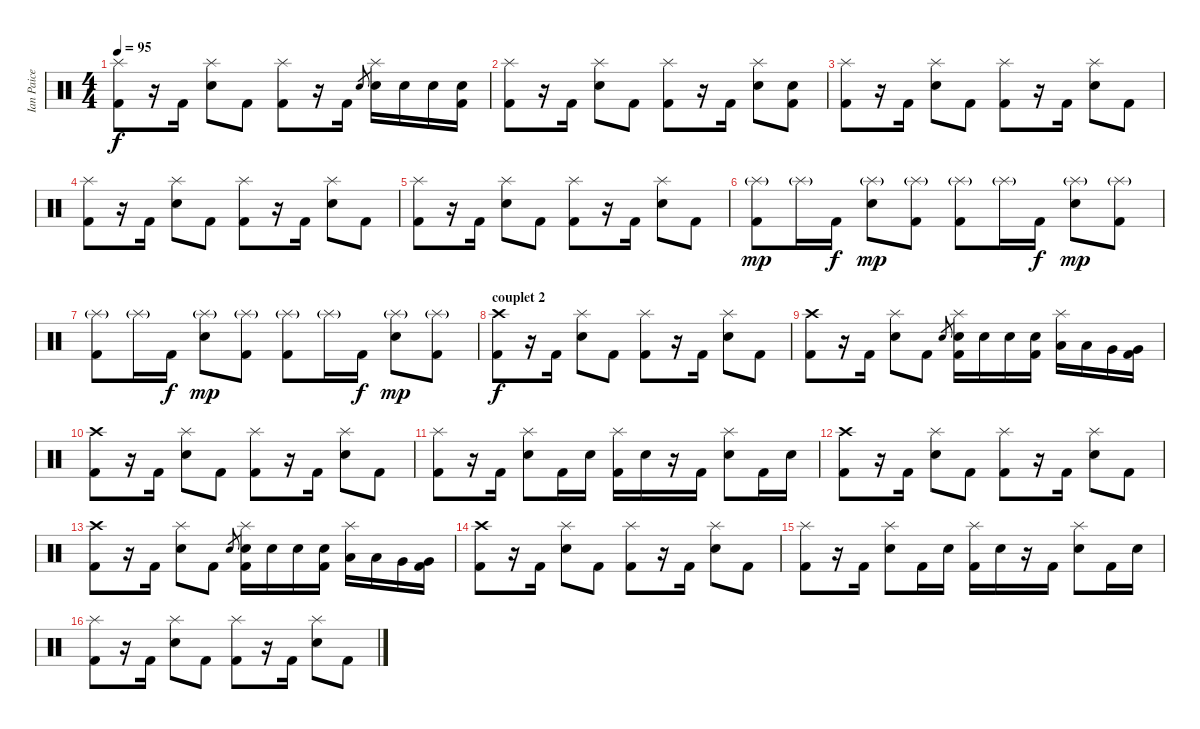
\track ("Ian Paice" "Ian Paice") {instrument percussion}
\staff {score}
\articulation defaults
\ts (4 4)
\tempo 95
\clef neutral
\ks c
("Splash (hit)" "Kick (hit) 2").8{dy f} r.16 "Kick (hit) 2".16 ("Splash (hit)" "Snare (hit) 2").8 "Kick (hit) 2".8 ("Splash (hit)" "Kick (hit) 2").8 r.16 "Kick (hit) 2".16 "Snare (hit) 2".8{gr} ("Splash (hit)" "Snare (hit) 2").16 "Snare (hit) 2".16 "Snare (hit) 2".16 ("Snare (hit) 2" "Kick (hit) 2").16 |
("Splash (hit)" "Kick (hit) 2").8 r.16 "Kick (hit) 2".16 ("Splash (hit)" "Snare (hit) 2").8 "Kick (hit) 2".8 ("Splash (hit)" "Kick (hit) 2").8 r.16 "Kick (hit) 2".16 ("Splash (hit)" "Snare (hit) 2").8 ("Snare (hit) 2" "Kick (hit) 2").8 |
("Splash (hit)" "Kick (hit) 2").8 r.16 "Kick (hit) 2".16 ("Splash (hit)" "Snare (hit) 2").8 "Kick (hit) 2".8 ("Splash (hit)" "Kick (hit) 2").8 r.16 "Kick (hit) 2".16 ("Splash (hit)" "Snare (hit) 2").8 "Kick (hit) 2".8 |
("Splash (hit)" "Kick (hit) 2").8 r.16 "Kick (hit) 2".16 ("Splash (hit)" "Snare (hit) 2").8 "Kick (hit) 2".8 ("Splash (hit)" "Kick (hit) 2").8 r.16 "Kick (hit) 2".16 ("Splash (hit)" "Snare (hit) 2").8 "Kick (hit) 2".8 |
("Splash (hit)" "Kick (hit) 2").8 r.16 "Kick (hit) 2".16 ("Splash (hit)" "Snare (hit) 2").8 "Kick (hit) 2".8 ("Splash (hit)" "Kick (hit) 2").8 r.16 "Kick (hit) 2".16 ("Splash (hit)" "Snare (hit) 2").8 "Kick (hit) 2".8 |
("Splash (hit)"{g} "Kick (hit) 2").8{dy mp} "Splash (hit)"{g}.16 "Kick (hit) 2".16{dy f} ("Splash (hit)"{g} "Snare (hit) 2").8{dy mp} ("Splash (hit)"{g} "Kick (hit) 2").8 ("Splash (hit)"{g} "Kick (hit) 2").8 "Splash (hit)"{g}.16 "Kick (hit) 2".16{dy f} ("Splash (hit)"{g} "Snare (hit) 2").8{dy mp} ("Splash (hit)"{g} "Kick (hit) 2").8 |
("Splash (hit)"{g} "Kick (hit) 2").8 "Splash (hit)"{g}.16 "Kick (hit) 2".16{dy f} ("Splash (hit)"{g} "Snare (hit) 2").8{dy mp} ("Splash (hit)"{g} "Kick (hit) 2").8 ("Splash (hit)"{g} "Kick (hit) 2").8 "Splash (hit)"{g}.16 "Kick (hit) 2".16{dy f} ("Splash (hit)"{g} "Snare (hit) 2").8{dy mp} ("Splash (hit)"{g} "Kick (hit) 2").8 |
\section ("" "couplet 2")
("Crash high (hit)" "Kick (hit) 2").8{dy f} r.16 "Kick (hit) 2".16 ("Splash (hit)" "Snare (hit) 2").8 "Kick (hit) 2".8 ("Splash (hit)" "Kick (hit) 2").8 r.16 "Kick (hit) 2".16 ("Splash (hit)" "Snare (hit) 2").8 "Kick (hit) 2".8 |
("Crash high (hit)" "Kick (hit) 2").8 r.16 "Kick (hit) 2".16 ("Splash (hit)" "Snare (hit) 2").8 "Kick (hit) 2".8 "Snare (hit) 2".8{gr} ("Splash (hit)" "Snare (hit) 2" "Kick (hit) 2").16 "Snare (hit) 2".16 "Snare (hit) 2".16 ("Snare (hit) 2" "Kick (hit) 2").16 ("Splash (hit)" "Low Floor Tom (hit)").16 "Low Floor Tom (hit)".16 "Very Low Tom (hit)".16 ("Very Low Tom (hit)" "Kick (hit) 2").16 |
("Crash high (hit)" "Kick (hit) 2").8 r.16 "Kick (hit) 2".16 ("Splash (hit)" "Snare (hit) 2").8 "Kick (hit) 2".8 ("Splash (hit)" "Kick (hit) 2").8 r.16 "Kick (hit) 2".16 ("Splash (hit)" "Snare (hit) 2").8 "Kick (hit) 2".8 |
("Splash (hit)" "Kick (hit) 2").8 r.16 "Kick (hit) 2".16 ("Splash (hit)" "Snare (hit) 2").8 "Kick (hit) 2"{x}.16 "Snare (hit) 2".16 ("Splash (hit)" "Kick (hit) 2").16 "Snare (hit) 2".16 r.16 "Kick (hit) 2".16 ("Splash (hit)" "Snare (hit) 2").8 "Kick (hit) 2".16 "Snare (hit) 2".16 |
("Crash high (hit)" "Kick (hit) 2").8 r.16 "Kick (hit) 2".16 ("Splash (hit)" "Snare (hit) 2").8 "Kick (hit) 2".8 ("Splash (hit)" "Kick (hit) 2").8 r.16 "Kick (hit) 2".16 ("Splash (hit)" "Snare (hit) 2").8 "Kick (hit) 2".8 |
("Crash high (hit)" "Kick (hit) 2").8 r.16 "Kick (hit) 2".16 ("Splash (hit)" "Snare (hit) 2").8 "Kick (hit) 2".8 "Snare (hit) 2".8{gr} ("Splash (hit)" "Snare (hit) 2" "Kick (hit) 2").16 "Snare (hit) 2".16 "Snare (hit) 2".16 ("Snare (hit) 2" "Kick (hit) 2").16 ("Splash (hit)" "Low Floor Tom (hit)").16 "Low Floor Tom (hit)".16 "Very Low Tom (hit)".16 ("Very Low Tom (hit)" "Kick (hit) 2").16 |
("Crash high (hit)" "Kick (hit) 2").8 r.16 "Kick (hit) 2".16 ("Splash (hit)" "Snare (hit) 2").8 "Kick (hit) 2".8 ("Splash (hit)" "Kick (hit) 2").8 r.16 "Kick (hit) 2".16 ("Splash (hit)" "Snare (hit) 2").8 "Kick (hit) 2".8 |
("Splash (hit)" "Kick (hit) 2").8 r.16 "Kick (hit) 2".16 ("Splash (hit)" "Snare (hit) 2").8 "Kick (hit) 2"{x}.16 "Snare (hit) 2".16 ("Splash (hit)" "Kick (hit) 2").16 "Snare (hit) 2".16 r.16 "Kick (hit) 2".16 ("Splash (hit)" "Snare (hit) 2").8 "Kick (hit) 2".16 "Snare (hit) 2".16 |
("Splash (hit)" "Kick (hit) 2").8 r.16 "Kick (hit) 2".16 ("Splash (hit)" "Snare (hit) 2").8 "Kick (hit) 2".8 ("Splash (hit)" "Kick (hit) 2").8 r.16 "Kick (hit) 2".16 ("Splash (hit)" "Snare (hit) 2").8 "Kick (hit) 2".8
